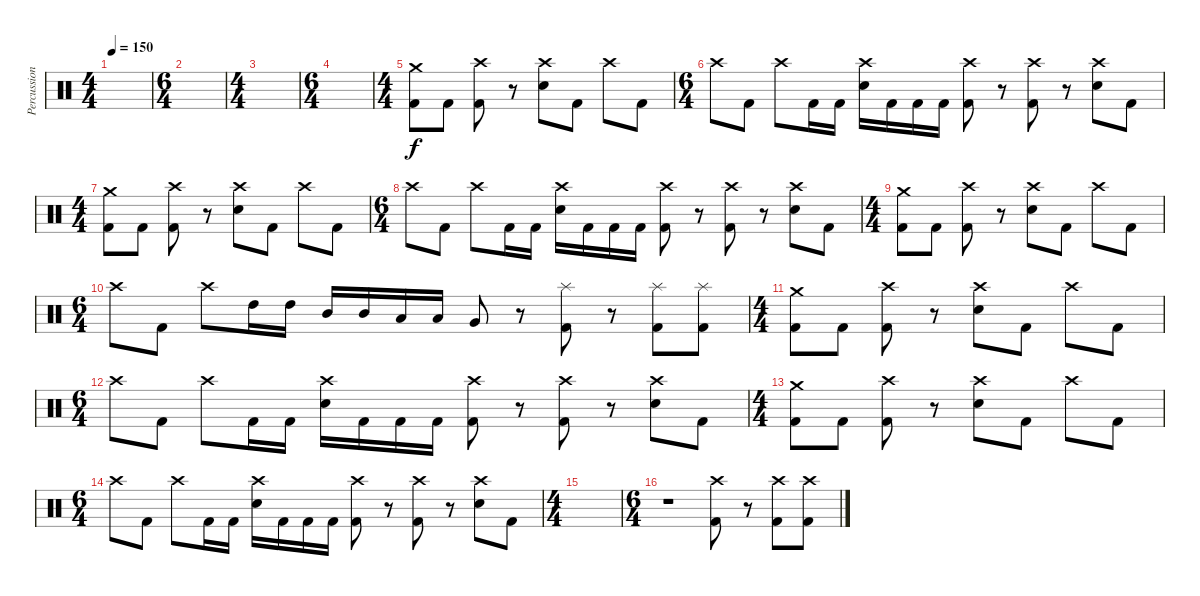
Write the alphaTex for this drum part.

\track ("Percussion" "Percussion") {instrument percussion}
\staff {score}
\articulation defaults
\ts (4 4)
\tempo 150
\clef neutral
\ks c
|
\ts (6 4)
|
\ts (4 4)
|
\ts (6 4)
|
\ts (4 4)
("Crash medium (hit)" "Kick (hit) 2").8 "Kick (hit) 2".8 ("Crash high (hit)" "Kick (hit) 2").8 r.8 ("Crash high (hit)" "Electric Snare (hit)").8 "Kick (hit) 2".8 "Crash high (hit)".8 "Kick (hit) 2".8 |
\ts (6 4)
"Crash high (hit)".8 "Kick (hit) 2".8 "Crash high (hit)".8 "Kick (hit) 2".16 "Kick (hit) 2".16 ("Crash high (hit)" "Electric Snare (hit)").16 "Kick (hit) 2".16 "Kick (hit) 2".16 "Kick (hit) 2".16 ("Crash high (hit)" "Kick (hit) 2").8 r.8 ("Crash high (hit)" "Kick (hit) 2").8 r.8 ("Crash high (hit)" "Electric Snare (hit)").8 "Kick (hit) 2".8 |
\ts (4 4)
("Crash medium (hit)" "Kick (hit) 2").8 "Kick (hit) 2".8 ("Crash high (hit)" "Kick (hit) 2").8 r.8 ("Crash high (hit)" "Electric Snare (hit)").8 "Kick (hit) 2".8 "Crash high (hit)".8 "Kick (hit) 2".8 |
\ts (6 4)
"Crash high (hit)".8 "Kick (hit) 2".8 "Crash high (hit)".8 "Kick (hit) 2".16 "Kick (hit) 2".16 ("Crash high (hit)" "Electric Snare (hit)").16 "Kick (hit) 2".16 "Kick (hit) 2".16 "Kick (hit) 2".16 ("Crash high (hit)" "Kick (hit) 2").8 r.8 ("Crash high (hit)" "Kick (hit) 2").8 r.8 ("Crash high (hit)" "Electric Snare (hit)").8 "Kick (hit) 2".8 |
\ts (4 4)
("Crash medium (hit)" "Kick (hit) 2").8 "Kick (hit) 2".8 ("Crash high (hit)" "Kick (hit) 2").8 r.8 ("Crash high (hit)" "Electric Snare (hit)").8 "Kick (hit) 2".8 "Crash high (hit)".8 "Kick (hit) 2".8 |
\ts (6 4)
"Crash high (hit)".8 "Kick (hit) 2".8 "Crash high (hit)".8 "High Tom (hit)".16 "High Tom (hit)".16 "Mid Tom (hit)".16 "Mid Tom (hit)".16 "Low Tom (hit)".16 "Low Tom (hit)".16 "Very Low Tom (hit)".8 r.8 ("Splash (hit)" "Kick (hit) 2").8 r.8 ("Splash (hit)" "Kick (hit) 2").8 ("Splash (hit)" "Kick (hit) 2").8 |
\ts (4 4)
("Crash medium (hit)" "Kick (hit) 2").8 "Kick (hit) 2".8 ("Crash high (hit)" "Kick (hit) 2").8 r.8 ("Crash high (hit)" "Electric Snare (hit)").8 "Kick (hit) 2".8 "Crash high (hit)".8 "Kick (hit) 2".8 |
\ts (6 4)
"Crash high (hit)".8 "Kick (hit) 2".8 "Crash high (hit)".8 "Kick (hit) 2".16 "Kick (hit) 2".16 ("Crash high (hit)" "Electric Snare (hit)").16 "Kick (hit) 2".16 "Kick (hit) 2".16 "Kick (hit) 2".16 ("Crash high (hit)" "Kick (hit) 2").8 r.8 ("Crash high (hit)" "Kick (hit) 2").8 r.8 ("Crash high (hit)" "Electric Snare (hit)").8 "Kick (hit) 2".8 |
\ts (4 4)
("Crash medium (hit)" "Kick (hit) 2").8 "Kick (hit) 2".8 ("Crash high (hit)" "Kick (hit) 2").8 r.8 ("Crash high (hit)" "Electric Snare (hit)").8 "Kick (hit) 2".8 "Crash high (hit)".8 "Kick (hit) 2".8 |
\ts (6 4)
"Crash high (hit)".8 "Kick (hit) 2".8 "Crash high (hit)".8 "Kick (hit) 2".16 "Kick (hit) 2".16 ("Crash high (hit)" "Electric Snare (hit)").16 "Kick (hit) 2".16 "Kick (hit) 2".16 "Kick (hit) 2".16 ("Crash high (hit)" "Kick (hit) 2").8 r.8 ("Crash high (hit)" "Kick (hit) 2").8 r.8 ("Crash high (hit)" "Electric Snare (hit)").8 "Kick (hit) 2".8 |
\ts (4 4)
|
\ts (6 4)
r.1 ("Crash high (hit)" "Kick (hit) 2").8 r.8 ("Crash high (hit)" "Kick (hit) 2").8 ("Crash high (hit)" "Kick (hit) 2").8
